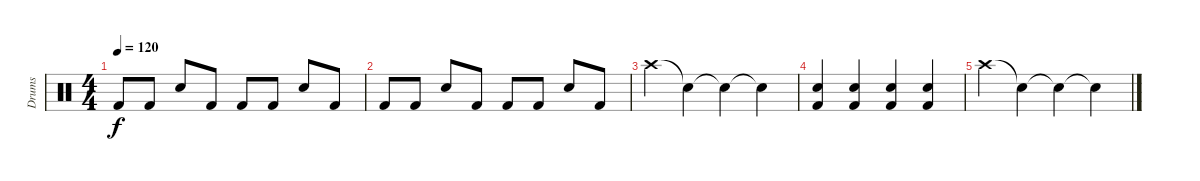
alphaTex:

\track ("Drums" "Drums") {instrument percussion}
\staff {score}
\articulation defaults
\ts (4 4)
\tempo 120
\clef neutral
\ks c "Kick (hit) 2".8{dy f} "Kick (hit) 2".8 "Snare (hit) 2".8 "Kick (hit) 2".8 "Kick (hit) 2".8 "Kick (hit) 2".8 "Snare (hit) 2".8 "Kick (hit) 2".8
|
"Kick (hit) 2".8 "Kick (hit) 2".8 "Snare (hit) 2".8 "Kick (hit) 2".8 "Kick (hit) 2".8 "Kick (hit) 2".8 "Snare (hit) 2".8 "Kick (hit) 2".8 |
"Crash high (hit)".4 "Snare (hit)"{t}.4 "Snare (hit)"{t}.4 "Snare (hit)"{t}.4 |
("Kick (hit) 2" "Snare (hit) 2").4 ("Kick (hit) 2" "Snare (hit) 2").4 ("Kick (hit) 2" "Snare (hit) 2").4 ("Kick (hit) 2" "Snare (hit) 2").4 |
"Crash high (hit)".4 "Snare (hit)"{t}.4 "Snare (hit)"{t}.4 "Snare (hit)"{t}.4
